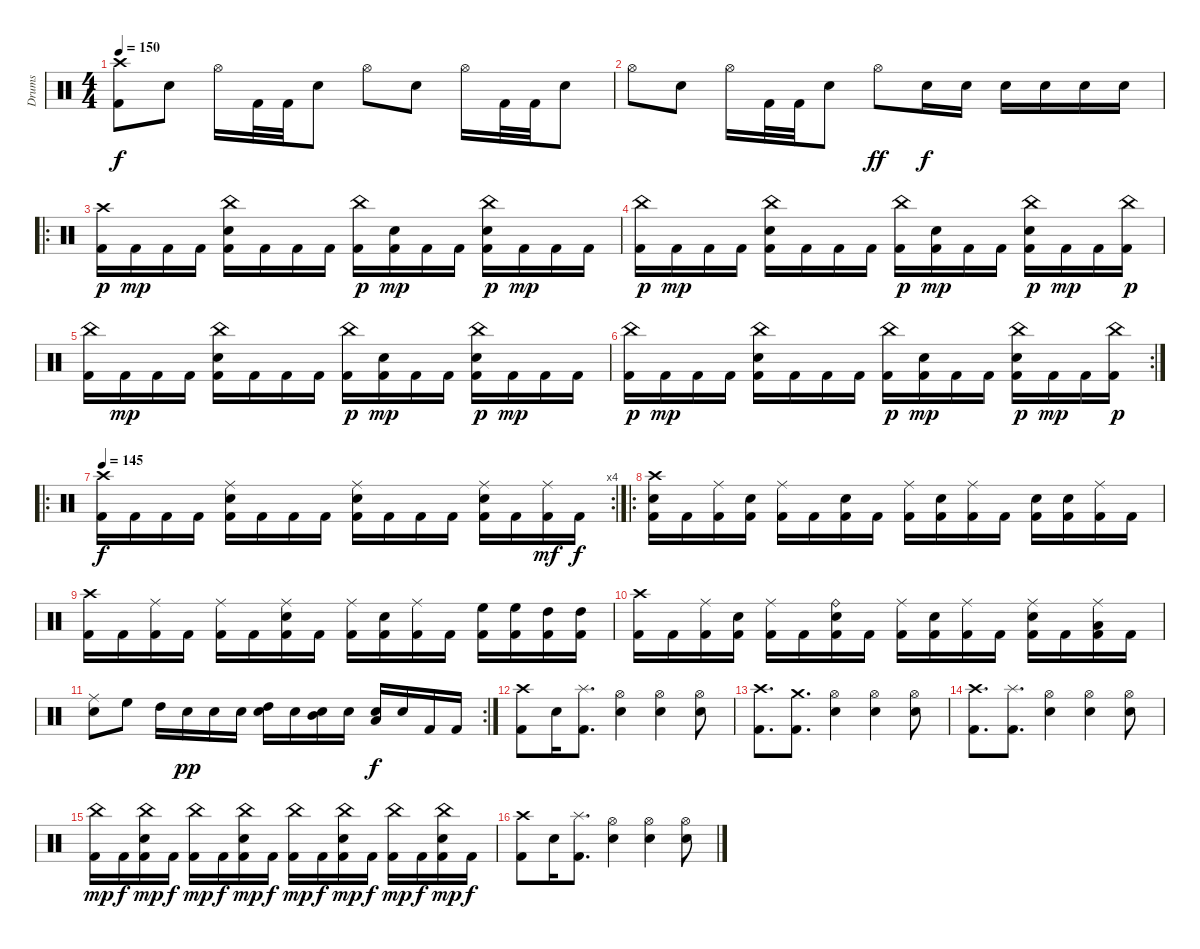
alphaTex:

\track ("Drums" "Drums") {instrument percussion}
\staff {score}
\articulation defaults
\ts (4 4)
\tempo 150
\clef neutral
\ks c
("Kick (hit) 2" "Crash high (hit)").8{dy f} "Electric Snare (hit)".8 "Hi-Hat (open)".16 "Kick (hit) 2".32 "Kick (hit) 2".32 "Electric Snare (hit)".8 "Hi-Hat (open)".8 "Electric Snare (hit)".8 "Hi-Hat (open)".16 "Kick (hit) 2".32 "Kick (hit) 2".32 "Electric Snare (hit)".8 |
"Hi-Hat (open)".8 "Electric Snare (hit)".8 "Hi-Hat (open)".16 "Kick (hit) 2".32 "Kick (hit) 2".32 "Electric Snare (hit)".8 "Hi-Hat (open)".8{dy ff} "Electric Snare (hit)".16{dy f} "Electric Snare (hit)".16 "Electric Snare (hit)".16 "Electric Snare (hit)".16 "Electric Snare (hit)".16 "Electric Snare (hit)".16 |
\ro
("Kick (hit) 2" "Crash high (hit)").16{dy p} "Kick (hit) 2".16{dy mp} "Kick (hit) 2".16 "Kick (hit) 2".16 ("Kick (hit) 2" "China (hit)" "Electric Snare (hit)").16 "Kick (hit) 2".16 "Kick (hit) 2".16 "Kick (hit) 2".16 ("Kick (hit) 2" "China (hit)").16{dy p} ("Kick (hit) 2" "Electric Snare (hit)").16{dy mp} "Kick (hit) 2".16 "Kick (hit) 2".16 ("Kick (hit) 2" "Electric Snare (hit)" "China (hit)").16{dy p} "Kick (hit) 2".16{dy mp} "Kick (hit) 2".16 "Kick (hit) 2".16 |
("Kick (hit) 2" "China (hit)").16{dy p} "Kick (hit) 2".16{dy mp} "Kick (hit) 2".16 "Kick (hit) 2".16 ("Kick (hit) 2" "China (hit)" "Electric Snare (hit)").16 "Kick (hit) 2".16 "Kick (hit) 2".16 "Kick (hit) 2".16 ("Kick (hit) 2" "China (hit)").16{dy p} ("Kick (hit) 2" "Electric Snare (hit)").16{dy mp} "Kick (hit) 2".16 "Kick (hit) 2".16 ("Kick (hit) 2" "Electric Snare (hit)" "China (hit)").16{dy p} "Kick (hit) 2".16{dy mp} "Kick (hit) 2".16 ("Kick (hit) 2" "China (hit)").16{dy p} |
("Kick (hit) 2" "China (hit)").16 "Kick (hit) 2".16{dy mp} "Kick (hit) 2".16 "Kick (hit) 2".16 ("Kick (hit) 2" "China (hit)" "Electric Snare (hit)").16 "Kick (hit) 2".16 "Kick (hit) 2".16 "Kick (hit) 2".16 ("Kick (hit) 2" "China (hit)").16{dy p} ("Kick (hit) 2" "Electric Snare (hit)").16{dy mp} "Kick (hit) 2".16 "Kick (hit) 2".16 ("Kick (hit) 2" "Electric Snare (hit)" "China (hit)").16{dy p} "Kick (hit) 2".16{dy mp} "Kick (hit) 2".16 "Kick (hit) 2".16 |
\rc 2
("Kick (hit) 2" "China (hit)").16{dy p} "Kick (hit) 2".16{dy mp} "Kick (hit) 2".16 "Kick (hit) 2".16 ("Kick (hit) 2" "China (hit)" "Electric Snare (hit)").16 "Kick (hit) 2".16 "Kick (hit) 2".16 "Kick (hit) 2".16 ("Kick (hit) 2" "China (hit)").16{dy p} ("Kick (hit) 2" "Electric Snare (hit)").16{dy mp} "Kick (hit) 2".16 "Kick (hit) 2".16 ("Kick (hit) 2" "Electric Snare (hit)" "China (hit)").16{dy p} "Kick (hit) 2".16{dy mp} "Kick (hit) 2".16 ("Kick (hit) 2" "China (hit)").16{dy p} |
\ro
\rc 4
\tempo 145
("Crash high (hit)" "Kick (hit) 2").16{dy f} "Kick (hit) 2".16 "Kick (hit) 2".16 "Kick (hit) 2".16 ("Kick (hit) 2" "Electric Snare (hit)" "Ride (middle)").16 "Kick (hit) 2".16 "Kick (hit) 2".16 "Kick (hit) 2".16 ("Kick (hit) 2" "Electric Snare (hit)" "Ride (middle)").16 "Kick (hit) 2".16 "Kick (hit) 2".16 "Kick (hit) 2".16 ("Kick (hit) 2" "Electric Snare (hit)" "Ride (middle)").16 "Kick (hit) 2".16 ("Kick (hit) 2" "Ride (middle)").16{dy mf} "Kick (hit) 2".16{dy f} |
\ro
("Kick (hit) 2" "Electric Snare (hit)" "Crash high (hit)").16 "Kick (hit) 2".16 ("Kick (hit) 2" "Ride (middle)").16 ("Kick (hit) 2" "Electric Snare (hit)").16 ("Kick (hit) 2" "Ride (middle)").16 "Kick (hit) 2".16 ("Kick (hit) 2" "Electric Snare (hit)").16 "Kick (hit) 2".16 ("Kick (hit) 2" "Ride (middle)").16 ("Kick (hit) 2" "Electric Snare (hit)").16 ("Kick (hit) 2" "Ride (middle)").16 "Kick (hit) 2".16 ("Kick (hit) 2" "Electric Snare (hit)").16 ("Kick (hit) 2" "Electric Snare (hit)").16 ("Kick (hit) 2" "Ride (middle)").16 "Kick (hit) 2".16 |
("Crash high (hit)" "Kick (hit) 2").16 "Kick (hit) 2".16 ("Kick (hit) 2" "Ride (middle)").16 "Kick (hit) 2".16 ("Kick (hit) 2" "Ride (middle)").16 "Kick (hit) 2".16 ("Kick (hit) 2" "Electric Snare (hit)" "Ride (middle)").16 "Kick (hit) 2".16 ("Kick (hit) 2" "Ride (middle)").16 ("Kick (hit) 2" "Electric Snare (hit)").16 ("Kick (hit) 2" "Ride (middle)").16 "Kick (hit) 2".16 ("Kick (hit) 2" "High Floor Tom (hit)").16 ("Kick (hit) 2" "High Floor Tom (hit)").16 ("Kick (hit) 2" "High Tom (hit)").16 ("Kick (hit) 2" "High Tom (hit)").16 |
("Kick (hit) 2" "Crash high (hit)").16 "Kick (hit) 2".16 ("Kick (hit) 2" "Ride (middle)").16 ("Kick (hit) 2" "Electric Snare (hit)").16 ("Kick (hit) 2" "Ride (middle)").16 "Kick (hit) 2".16 ("Kick (hit) 2" "Ride (bell)" "Electric Snare (hit)").16 "Kick (hit) 2".16 ("Kick (hit) 2" "Ride (middle)").16 ("Kick (hit) 2" "Electric Snare (hit)").16 ("Kick (hit) 2" "Ride (middle)").16 "Kick (hit) 2".16 ("Kick (hit) 2" "Electric Snare (hit)" "Ride (middle)").16 "Kick (hit) 2".16 ("Kick (hit) 2" "Low Floor Tom (hit)" "Ride (middle)").16 "Kick (hit) 2".16 |
\rc 2
("Electric Snare (hit)" "Ride (middle)").8 "High Floor Tom (hit)".8 "High Tom (hit)".16 "Electric Snare (hit)".16{dy pp} "Electric Snare (hit)".16 "Electric Snare (hit)".16 ("High Tom (hit)" "Electric Snare (hit)").16 "Electric Snare (hit)".16 ("Mid Tom (hit)" "Electric Snare (hit)").16 "Electric Snare (hit)".16 ("Electric Snare (hit)" "Low Tom (hit)").16{dy f} "Electric Snare (hit)".16 "Kick (hit) 2".16 "Kick (hit) 2".16 |
("Crash high (hit)" "Kick (hit) 2").8 "Electric Snare (hit)".16 ("Splash (hit)" "Kick (hit) 2").8{d} ("Hi-Hat (open)" "Electric Snare (hit)").4 ("Hi-Hat (open)" "Electric Snare (hit)").4 ("Hi-Hat (open)" "Electric Snare (hit)").8 |
("Kick (hit) 2" "Crash high (hit)").8{d} ("Kick (hit) 2" "Crash medium (hit)").8{d} ("Hi-Hat (open)" "Electric Snare (hit)").4 ("Hi-Hat (open)" "Electric Snare (hit)").4 ("Hi-Hat (open)" "Electric Snare (hit)").8 |
("Crash high (hit)" "Kick (hit) 2").8{d} ("Splash (hit)" "Kick (hit) 2").8{d} ("Hi-Hat (open)" "Electric Snare (hit)").4 ("Hi-Hat (open)" "Electric Snare (hit)").4 ("Hi-Hat (open)" "Electric Snare (hit)").8 |
("Kick (hit) 2" "China (hit)").16{dy mp} "Kick (hit) 2".16{dy f} ("Electric Snare (hit)" "Kick (hit) 2" "China (hit)").16{dy mp} "Kick (hit) 2".16{dy f} ("Kick (hit) 2" "China (hit)").16{dy mp} "Kick (hit) 2".16{dy f} ("Electric Snare (hit)" "Kick (hit) 2" "China (hit)").16{dy mp} "Kick (hit) 2".16{dy f} ("Kick (hit) 2" "China (hit)").16{dy mp} "Kick (hit) 2".16{dy f} ("Electric Snare (hit)" "Kick (hit) 2" "China (hit)").16{dy mp} "Kick (hit) 2".16{dy f} ("Kick (hit) 2" "China (hit)").16{dy mp} "Kick (hit) 2".16{dy f} ("Electric Snare (hit)" "Kick (hit) 2" "China (hit)").16{dy mp} "Kick (hit) 2".16{dy f} |
("Kick (hit) 2" "Crash high (hit)").8 "Electric Snare (hit)".16 ("Splash (hit)" "Kick (hit) 2").8{d} ("Hi-Hat (open)" "Electric Snare (hit)").4 ("Hi-Hat (open)" "Electric Snare (hit)").4 ("Hi-Hat (open)" "Electric Snare (hit)").8
